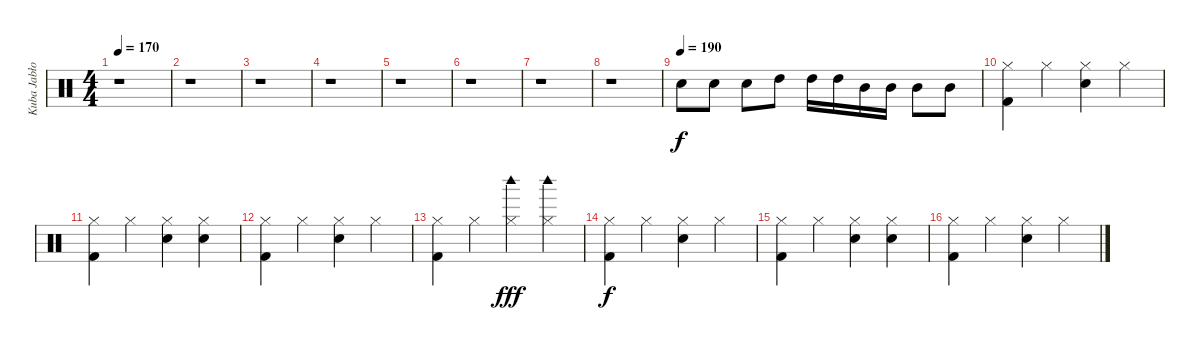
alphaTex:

\track ("Kuba Jabłoński" "Kuba Jabło") {instrument percussion}
\staff {score}
\articulation defaults
\ts (4 4)
\tempo 170
\clef neutral
\ks c
r.1{dy f} |
r.1 |
r.1 |
r.1 |
r.1 |
r.1 |
r.1 |
r.1 |
\tempo (190)
"Snare (hit) 2".8 "Snare (hit) 2".8 "Snare (hit) 2".8 "High Tom (hit)".8 "High Tom (hit)".16 "High Tom (hit)".16 "Mid Tom (hit)".16 "Mid Tom (hit)".16 "Mid Tom (hit)".8 "Mid Tom (hit)".8 |
("Kick (hit) 2" "Hi-Hat (closed)").4 "Hi-Hat (closed)".4 ("Snare (hit) 2" "Hi-Hat (closed)").4 "Hi-Hat (closed)".4 |
("Kick (hit) 2" "Hi-Hat (closed)").4 "Hi-Hat (closed)".4 ("Snare (hit) 2" "Hi-Hat (closed)").4 ("Snare (hit) 2" "Hi-Hat (closed)").4 |
("Kick (hit) 2" "Hi-Hat (closed)").4 "Hi-Hat (closed)".4 ("Snare (hit) 2" "Hi-Hat (closed)").4 "Hi-Hat (closed)".4 |
("Kick (hit) 2" "Hi-Hat (closed)").4 "Hi-Hat (closed)".4 ("Woodblock high (hit)" "Hi-Hat (closed)").4{dy fff} ("Woodblock high (hit)" "Hi-Hat (closed)").4 |
("Kick (hit) 2" "Hi-Hat (closed)").4{dy f} "Hi-Hat (closed)".4 ("Snare (hit) 2" "Hi-Hat (closed)").4 "Hi-Hat (closed)".4 |
("Kick (hit) 2" "Hi-Hat (closed)").4 "Hi-Hat (closed)".4 ("Snare (hit) 2" "Hi-Hat (closed)").4 ("Snare (hit) 2" "Hi-Hat (closed)").4 |
("Kick (hit) 2" "Hi-Hat (closed)").4 "Hi-Hat (closed)".4 ("Snare (hit) 2" "Hi-Hat (closed)").4 "Hi-Hat (closed)".4
